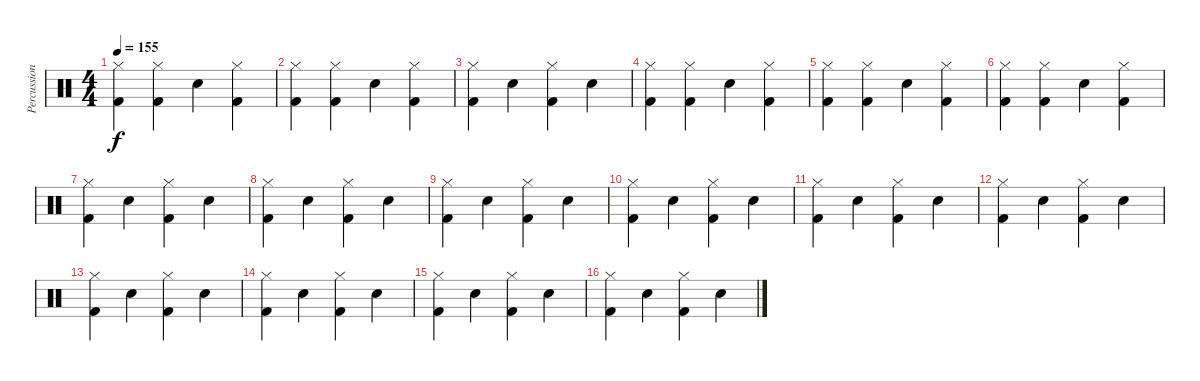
\track ("Percussion" "Percussion") {instrument percussion}
\staff {score}
\articulation defaults
\ts (4 4)
\tempo 155
\clef neutral
\ks c
("Hi-Hat (closed)" "Kick (hit) 2").4{dy f} ("Hi-Hat (closed)" "Kick (hit) 2").4 "Electric Snare (hit)".4 ("Hi-Hat (closed)" "Kick (hit) 2").4 |
("Hi-Hat (closed)" "Kick (hit) 2").4 ("Hi-Hat (closed)" "Kick (hit) 2").4 "Electric Snare (hit)".4 ("Hi-Hat (closed)" "Kick (hit) 2").4 |
("Hi-Hat (closed)" "Kick (hit) 2").4 "Electric Snare (hit)".4 ("Hi-Hat (closed)" "Kick (hit) 2").4 "Electric Snare (hit)".4 |
("Hi-Hat (closed)" "Kick (hit) 2").4 ("Hi-Hat (closed)" "Kick (hit) 2").4 "Electric Snare (hit)".4 ("Hi-Hat (closed)" "Kick (hit) 2").4 |
("Hi-Hat (closed)" "Kick (hit) 2").4 ("Hi-Hat (closed)" "Kick (hit) 2").4 "Electric Snare (hit)".4 ("Hi-Hat (closed)" "Kick (hit) 2").4 |
("Hi-Hat (closed)" "Kick (hit) 2").4 ("Hi-Hat (closed)" "Kick (hit) 2").4 "Electric Snare (hit)".4 ("Hi-Hat (closed)" "Kick (hit) 2").4 |
("Hi-Hat (closed)" "Kick (hit) 2").4 "Electric Snare (hit)".4 ("Hi-Hat (closed)" "Kick (hit) 2").4 "Electric Snare (hit)".4 |
("Hi-Hat (closed)" "Kick (hit) 2").4 "Electric Snare (hit)".4 ("Hi-Hat (closed)" "Kick (hit) 2").4 "Electric Snare (hit)".4 |
("Hi-Hat (closed)" "Kick (hit) 2").4 "Electric Snare (hit)".4 ("Hi-Hat (closed)" "Kick (hit) 2").4 "Electric Snare (hit)".4 |
("Hi-Hat (closed)" "Kick (hit) 2").4 "Electric Snare (hit)".4 ("Hi-Hat (closed)" "Kick (hit) 2").4 "Electric Snare (hit)".4 |
("Hi-Hat (closed)" "Kick (hit) 2").4 "Electric Snare (hit)".4 ("Hi-Hat (closed)" "Kick (hit) 2").4 "Electric Snare (hit)".4 |
("Hi-Hat (closed)" "Kick (hit) 2").4 "Electric Snare (hit)".4 ("Hi-Hat (closed)" "Kick (hit) 2").4 "Electric Snare (hit)".4 |
("Hi-Hat (closed)" "Kick (hit) 2").4 "Electric Snare (hit)".4 ("Hi-Hat (closed)" "Kick (hit) 2").4 "Electric Snare (hit)".4 |
("Hi-Hat (closed)" "Kick (hit) 2").4 "Electric Snare (hit)".4 ("Hi-Hat (closed)" "Kick (hit) 2").4 "Electric Snare (hit)".4 |
("Hi-Hat (closed)" "Kick (hit) 2").4 "Electric Snare (hit)".4 ("Hi-Hat (closed)" "Kick (hit) 2").4 "Electric Snare (hit)".4 |
("Hi-Hat (closed)" "Kick (hit) 2").4 "Electric Snare (hit)".4 ("Hi-Hat (closed)" "Kick (hit) 2").4 "Electric Snare (hit)".4
